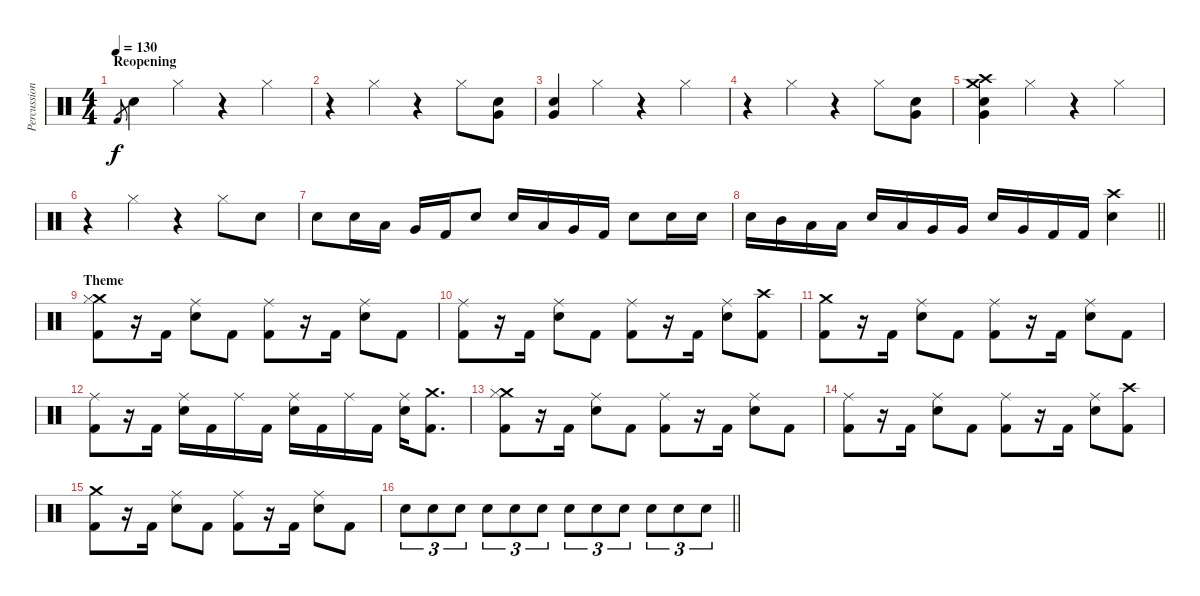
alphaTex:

\track ("Percussion" "Percussion") {instrument percussion}
\staff {score}
\articulation defaults
\ts (4 4)
\section ("" "Reopening")
\tempo 130
\clef neutral
\ks c "Kick (hit) 2".8{gr dy f} "Snare (hit) 2".4 "Hi-Hat (closed)".4
r.4 "Hi-Hat (closed)".4 |
r.4 "Hi-Hat (closed)".4 r.4 "Hi-Hat (closed)".8 ("Very Low Tom (hit)" "Snare (hit) 2").8 |
("Very Low Tom (hit)" "Snare (hit) 2").4 "Hi-Hat (closed)".4 r.4 "Hi-Hat (closed)".4 |
r.4 "Hi-Hat (closed)".4 r.4 "Hi-Hat (closed)".8 ("Snare (hit) 2" "Very Low Tom (hit)").8 |
("Crash high (hit)" "Crash medium (hit)" "Snare (hit) 2" "Very Low Tom (hit)").4 "Hi-Hat (closed)".4 r.4 "Hi-Hat (closed)".4 |
r.4 "Hi-Hat (closed)".4 r.4 "Hi-Hat (closed)".8 "Snare (hit) 2".8 |
"Snare (hit) 2".8 "Snare (hit) 2".16 "Low Tom (hit)".16 "Very Low Tom (hit)".16 "Kick (hit) 2".16 "Snare (hit) 2".8 "Snare (hit) 2".16 "Low Tom (hit)".16 "Very Low Tom (hit)".16 "Kick (hit) 2".16 "Snare (hit) 2".8 "Snare (hit) 2".16 "Snare (hit) 2".16 |
\barLineRight lightlight "Snare (hit) 2".16 "Mid Tom (hit)".16 "Low Tom (hit)".16 "Low Tom (hit)".16 "Snare (hit) 2".16 "Low Tom (hit)".16 "Very Low Tom (hit)".16 "Very Low Tom (hit)".16 "Snare (hit) 2".16 "Very Low Tom (hit)".16 "Kick (hit) 2".16 "Kick (hit) 2".16
("Crash high (hit)" "Snare (hit) 2").4 |
\section ("" "Theme")
("Crash medium (hit)" "Hi-Hat (closed)" "Kick (hit) 2").8 r.16 "Kick (hit) 2".16 ("Ride (middle)" "Snare (hit) 2").8 "Kick (hit) 2".8 ("Ride (middle)" "Kick (hit) 2").8 r.16 "Kick (hit) 2".16 ("Ride (middle)" "Snare (hit) 2").8 "Kick (hit) 2".8 |
("Ride (middle)" "Kick (hit) 2").8 r.16 "Kick (hit) 2".16 ("Ride (middle)" "Snare (hit) 2").8 "Kick (hit) 2".8 ("Ride (middle)" "Kick (hit) 2").8 r.16 "Kick (hit) 2".16 ("Ride (middle)" "Snare (hit) 2").8 ("Crash high (hit)" "Kick (hit) 2").8 |
("Crash medium (hit)" "Kick (hit) 2").8 r.16 "Kick (hit) 2".16 ("Ride (middle)" "Snare (hit) 2").8 "Kick (hit) 2".8 ("Ride (middle)" "Kick (hit) 2").8 r.16 "Kick (hit) 2".16 ("Ride (middle)" "Snare (hit) 2").8 "Kick (hit) 2".8 |
("Ride (middle)" "Kick (hit) 2").8 r.16 "Kick (hit) 2".16 ("Ride (middle)" "Snare (hit) 2").16 "Kick (hit) 2".16 "Ride (middle)".16 "Kick (hit) 2".16 ("Ride (middle)" "Snare (hit) 2").16 "Kick (hit) 2".16 "Ride (middle)".16 "Kick (hit) 2".16 ("Ride (middle)" "Snare (hit) 2").16 ("Crash medium (hit)" "Kick (hit) 2").8{d} |
("Crash medium (hit)" "Hi-Hat (closed)" "Kick (hit) 2").8 r.16 "Kick (hit) 2".16 ("Ride (middle)" "Snare (hit) 2").8 "Kick (hit) 2".8 ("Ride (middle)" "Kick (hit) 2").8 r.16 "Kick (hit) 2".16 ("Ride (middle)" "Snare (hit) 2").8 "Kick (hit) 2".8 |
("Ride (middle)" "Kick (hit) 2").8 r.16 "Kick (hit) 2".16 ("Ride (middle)" "Snare (hit) 2").8 "Kick (hit) 2".8 ("Ride (middle)" "Kick (hit) 2").8 r.16 "Kick (hit) 2".16 ("Ride (middle)" "Snare (hit) 2").8 ("Crash high (hit)" "Kick (hit) 2").8 |
("Crash medium (hit)" "Kick (hit) 2").8 r.16 "Kick (hit) 2".16 ("Ride (middle)" "Snare (hit) 2").8 "Kick (hit) 2".8 ("Ride (middle)" "Kick (hit) 2").8 r.16 "Kick (hit) 2".16 ("Ride (middle)" "Snare (hit) 2").8 "Kick (hit) 2".8 |
\barLineRight lightlight "Snare (hit) 2".8{tu (3 2)} "Snare (hit) 2".8{tu (3 2)} "Snare (hit) 2".8{tu (3 2)} "Snare (hit) 2".8{tu (3 2)} "Snare (hit) 2".8{tu (3 2)} "Snare (hit) 2".8{tu (3 2)} "Snare (hit) 2".8{tu (3 2)} "Snare (hit) 2".8{tu (3 2)} "Snare (hit) 2".8{tu (3 2)} "Snare (hit) 2".8{tu (3 2)} "Snare (hit) 2".8{tu (3 2)} "Snare (hit) 2".8{tu (3 2)}
